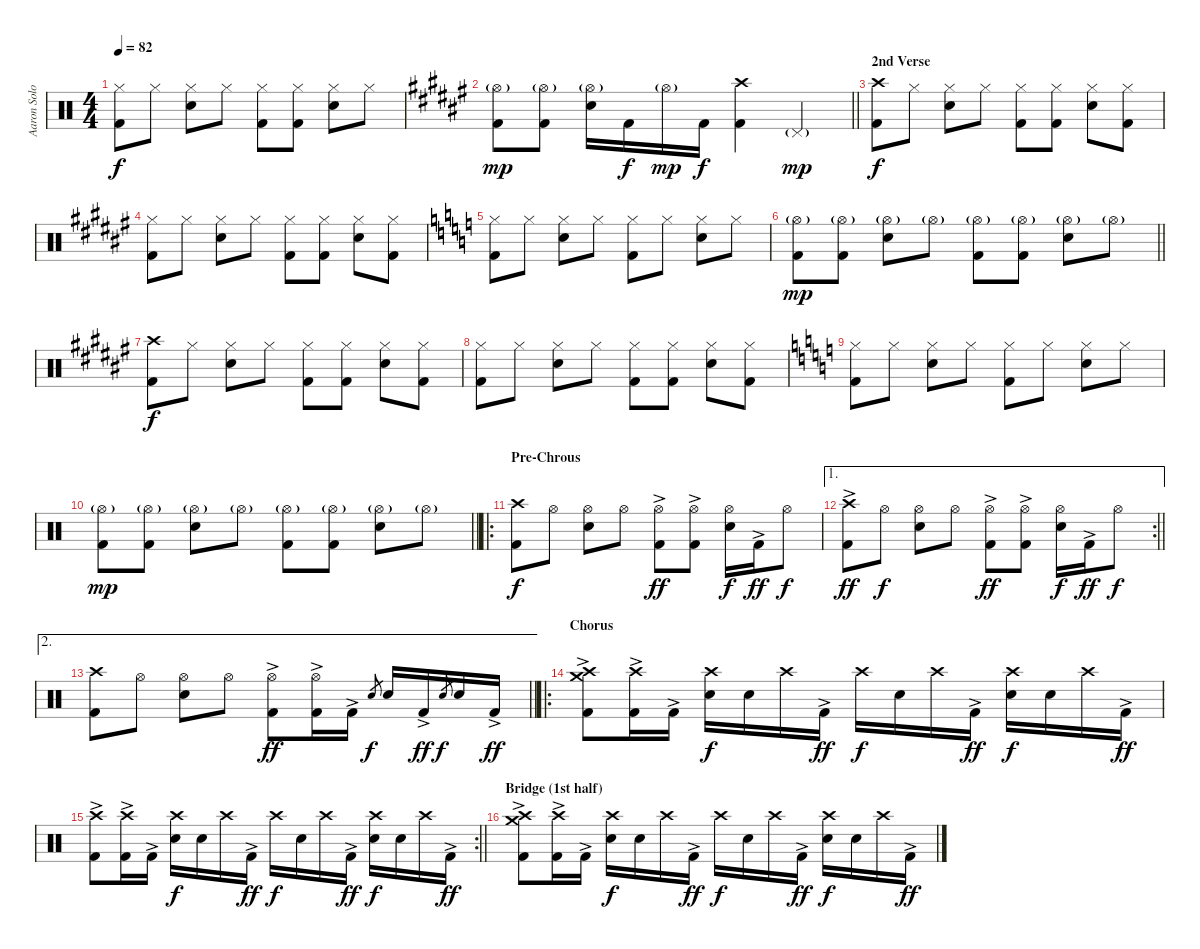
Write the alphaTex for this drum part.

\track ("Aaron Solowoniuk - Drums" "Aaron Solo") {instrument percussion}
\staff {score}
\articulation defaults
\ts (4 4)
\tempo 82
\clef neutral
\ks c
("Hi-Hat (closed)" "Kick (hit) 2").8{dy f} "Hi-Hat (closed)".8 ("Hi-Hat (closed)" "Snare (hit) 2").8 "Hi-Hat (closed)".8 ("Hi-Hat (closed)" "Kick (hit) 2").8 ("Hi-Hat (closed)" "Kick (hit) 2").8 ("Hi-Hat (closed)" "Snare (hit) 2").8 "Hi-Hat (closed)".8 |
\barLineRight lightlight
\ks d#minor
("Hi-Hat (open)"{g} "Kick (hit) 2").8{dy mp} ("Hi-Hat (open)"{g} "Kick (hit) 2").8 ("Hi-Hat (open)"{g} "Snare (hit) 2").16 "Kick (hit) 2".16{dy f} "Hi-Hat (open)"{g}.16{dy mp} "Kick (hit) 2".16{dy f} ("Crash high (hit)" "Kick (hit) 2").4 "Pedal Hi-Hat (hit)"{g}.4{dy mp} |
\section ("" "2nd Verse")
("Crash high (hit)" "Kick (hit) 2").8{dy f} "Hi-Hat (closed)".8 ("Hi-Hat (closed)" "Snare (hit) 2").8 "Hi-Hat (closed)".8 ("Hi-Hat (closed)" "Kick (hit) 2").8 ("Hi-Hat (closed)" "Kick (hit) 2").8 ("Hi-Hat (closed)" "Snare (hit) 2").8 ("Hi-Hat (closed)" "Kick (hit) 2").8 |
("Hi-Hat (closed)" "Kick (hit) 2").8 "Hi-Hat (closed)".8 ("Hi-Hat (closed)" "Snare (hit) 2").8 "Hi-Hat (closed)".8 ("Hi-Hat (closed)" "Kick (hit) 2").8 ("Hi-Hat (closed)" "Kick (hit) 2").8 ("Hi-Hat (closed)" "Snare (hit) 2").8 ("Hi-Hat (closed)" "Kick (hit) 2").8 |
\ks c
("Hi-Hat (closed)" "Kick (hit) 2").8 "Hi-Hat (closed)".8 ("Hi-Hat (closed)" "Snare (hit) 2").8 "Hi-Hat (closed)".8 ("Hi-Hat (closed)" "Kick (hit) 2").8 "Hi-Hat (closed)".8 ("Hi-Hat (closed)" "Snare (hit) 2").8 "Hi-Hat (closed)".8 |
\barLineRight lightlight
("Hi-Hat (open)"{g} "Kick (hit) 2").8{dy mp} ("Hi-Hat (open)"{g} "Kick (hit) 2").8 ("Hi-Hat (open)"{g} "Snare (hit) 2").8 "Hi-Hat (open)"{g}.8 ("Hi-Hat (open)"{g} "Kick (hit) 2").8 ("Hi-Hat (open)"{g} "Kick (hit) 2").8 ("Hi-Hat (open)"{g} "Snare (hit) 2").8 "Hi-Hat (open)"{g}.8 |
\ks d#minor
("Crash high (hit)" "Kick (hit) 2").8{dy f} "Hi-Hat (closed)".8 ("Hi-Hat (closed)" "Snare (hit) 2").8 "Hi-Hat (closed)".8 ("Hi-Hat (closed)" "Kick (hit) 2").8 ("Hi-Hat (closed)" "Kick (hit) 2").8 ("Hi-Hat (closed)" "Snare (hit) 2").8 ("Hi-Hat (closed)" "Kick (hit) 2").8 |
("Hi-Hat (closed)" "Kick (hit) 2").8 "Hi-Hat (closed)".8 ("Hi-Hat (closed)" "Snare (hit) 2").8 "Hi-Hat (closed)".8 ("Hi-Hat (closed)" "Kick (hit) 2").8 ("Hi-Hat (closed)" "Kick (hit) 2").8 ("Hi-Hat (closed)" "Snare (hit) 2").8 ("Hi-Hat (closed)" "Kick (hit) 2").8 |
\ks c
("Hi-Hat (closed)" "Kick (hit) 2").8 "Hi-Hat (closed)".8 ("Hi-Hat (closed)" "Snare (hit) 2").8 "Hi-Hat (closed)".8 ("Hi-Hat (closed)" "Kick (hit) 2").8 "Hi-Hat (closed)".8 ("Hi-Hat (closed)" "Snare (hit) 2").8 "Hi-Hat (closed)".8 |
\barLineRight lightlight
("Hi-Hat (open)"{g} "Kick (hit) 2").8{dy mp} ("Hi-Hat (open)"{g} "Kick (hit) 2").8 ("Hi-Hat (open)"{g} "Snare (hit) 2").8 "Hi-Hat (open)"{g}.8 ("Hi-Hat (open)"{g} "Kick (hit) 2").8 ("Hi-Hat (open)"{g} "Kick (hit) 2").8 ("Hi-Hat (open)"{g} "Snare (hit) 2").8 "Hi-Hat (open)"{g}.8 |
\ro
\section ("" "Pre-Chrous")
("Crash high (hit)" "Kick (hit) 2").8{dy f} "Hi-Hat (open)".8 ("Hi-Hat (open)" "Snare (hit) 2").8 "Hi-Hat (open)".8 ("Hi-Hat (open)" "Kick (hit) 2"{ac}).8{dy ff} ("Hi-Hat (open)" "Kick (hit) 2"{ac}).8 ("Hi-Hat (open)" "Snare (hit) 2").16{dy f} "Kick (hit) 2"{ac}.16{dy ff} "Hi-Hat (open)".8{dy f} |
\ae 1
\rc 2
\barLineRight lightlight
("Crash high (hit)" "Kick (hit) 2"{ac}).8{dy ff} "Hi-Hat (open)".8{dy f} ("Hi-Hat (open)" "Snare (hit) 2").8 "Hi-Hat (open)".8 ("Hi-Hat (open)" "Kick (hit) 2"{ac}).8{dy ff} ("Hi-Hat (open)" "Kick (hit) 2"{ac}).8 ("Hi-Hat (open)" "Snare (hit) 2").16{dy f} "Kick (hit) 2"{ac}.16{dy ff} "Hi-Hat (open)".8{dy f} |
\ae 2
\barLineRight lightlight
("Crash high (hit)" "Kick (hit) 2").8 "Hi-Hat (open)".8 ("Hi-Hat (open)" "Snare (hit) 2").8 "Hi-Hat (open)".8 ("Hi-Hat (open)" "Kick (hit) 2"{ac}).8{dy ff} ("Hi-Hat (open)" "Kick (hit) 2"{ac}).16 "Kick (hit) 2"{ac}.16 "Snare (hit) 2"{h}.8{gr dy f} "Snare (hit) 2".16 "Kick (hit) 2"{ac}.16{dy ff} "Snare (hit) 2"{h}.8{gr dy f} "Snare (hit) 2".16 "Kick (hit) 2"{ac}.16{dy ff} |
\ro
\section ("" "Chorus")
("Crash high (hit)" "Crash medium (hit)" "Kick (hit) 2"{ac}).8 ("Crash high (hit)" "Kick (hit) 2"{ac}).16 "Kick (hit) 2"{ac}.16 ("Crash high (hit)" "Snare (hit) 2").16{dy f} "Snare (hit) 2".16 "Crash high (hit)".16 "Kick (hit) 2"{ac}.16{dy ff} "Crash high (hit)".16{dy f} "Snare (hit) 2".16 "Crash high (hit)".16 "Kick (hit) 2"{ac}.16{dy ff} ("Crash high (hit)" "Snare (hit) 2").16{dy f} "Snare (hit) 2".16 "Crash high (hit)".16 "Kick (hit) 2"{ac}.16{dy ff} |
\rc 2
\barLineRight lightlight
("Crash high (hit)" "Kick (hit) 2"{ac}).8 ("Crash high (hit)" "Kick (hit) 2"{ac}).16 "Kick (hit) 2"{ac}.16 ("Crash high (hit)" "Snare (hit) 2").16{dy f} "Snare (hit) 2".16 "Crash high (hit)".16 "Kick (hit) 2"{ac}.16{dy ff} "Crash high (hit)".16{dy f} "Snare (hit) 2".16 "Crash high (hit)".16 "Kick (hit) 2"{ac}.16{dy ff} ("Crash high (hit)" "Snare (hit) 2").16{dy f} "Snare (hit) 2".16 "Crash high (hit)".16 "Kick (hit) 2"{ac}.16{dy ff} |
\section ("" "Bridge (1st half)")
("Crash high (hit)" "Crash medium (hit)" "Kick (hit) 2"{ac}).8 ("Crash high (hit)" "Kick (hit) 2"{ac}).16 "Kick (hit) 2"{ac}.16 ("Crash high (hit)" "Snare (hit) 2").16{dy f} "Snare (hit) 2".16 "Crash high (hit)".16 "Kick (hit) 2"{ac}.16{dy ff} "Crash high (hit)".16{dy f} "Snare (hit) 2".16 "Crash high (hit)".16 "Kick (hit) 2"{ac}.16{dy ff} ("Crash high (hit)" "Snare (hit) 2").16{dy f} "Snare (hit) 2".16 "Crash high (hit)".16 "Kick (hit) 2"{ac}.16{dy ff}
